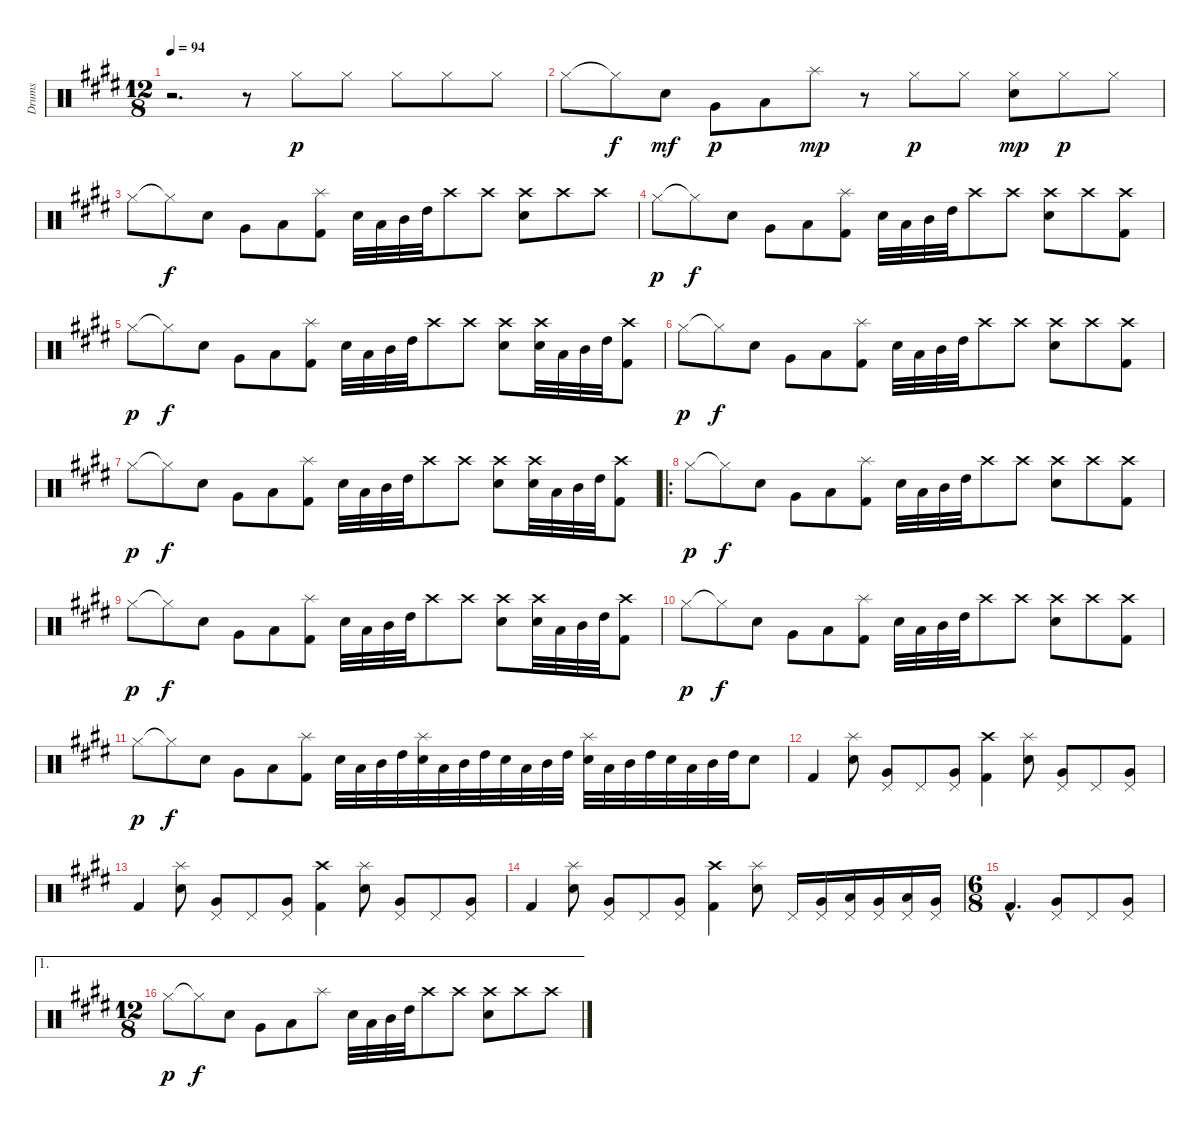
\track ("Drums" "Drums") {instrument percussion}
\staff {score}
\articulation defaults
\ts (12 8)
\tempo 94
\clef neutral
\ks e
r.2{d dy p} r.8 "Hi-Hat (closed)".8 "Hi-Hat (closed)".8 "Hi-Hat (closed)".8 "Hi-Hat (closed)".8 "Hi-Hat (closed)".8 |
"Hi-Hat (closed)".8 "Hi-Hat (closed)"{t}.8{dy f} "Snare (hit) 2".8{dy mf} "Very Low Tom (hit)".8{dy p} "Low Tom (hit)".8 "Splash (hit)".8{dy mp} r.8 "Hi-Hat (closed)".8{dy p} "Hi-Hat (closed)".8 ("Hi-Hat (closed)" "Snare (hit) 2").8{dy mp} "Hi-Hat (closed)".8{dy p} "Hi-Hat (closed)".8 |
"Hi-Hat (closed)".8 "Hi-Hat (closed)"{t}.8{dy f} "Snare (hit) 2".8 "Very Low Tom (hit)".8 "Low Tom (hit)".8 ("Splash (hit)" "Kick (hit) 2").8 "Snare (hit) 2".32 "Low Tom (hit)".32 "Mid Tom (hit)".32 "High Tom (hit)".32 "Crash high (hit)".8 "Crash high (hit)".8 ("Crash high (hit)" "Snare (hit) 2").8 "Crash high (hit)".8 "Crash high (hit)".8 |
"Hi-Hat (closed)".8{dy p} "Hi-Hat (closed)"{t}.8{dy f} "Snare (hit) 2".8 "Very Low Tom (hit)".8 "Low Tom (hit)".8 ("Splash (hit)" "Kick (hit) 2").8 "Snare (hit) 2".32 "Low Tom (hit)".32 "Mid Tom (hit)".32 "High Tom (hit)".32 "Crash high (hit)".8 "Crash high (hit)".8 ("Crash high (hit)" "Snare (hit) 2").8 "Crash high (hit)".8 ("Crash high (hit)" "Kick (hit) 2").8 |
"Hi-Hat (closed)".8{dy p} "Hi-Hat (closed)"{t}.8{dy f} "Snare (hit) 2".8 "Very Low Tom (hit)".8 "Low Tom (hit)".8 ("Splash (hit)" "Kick (hit) 2").8 "Snare (hit) 2".32 "Low Tom (hit)".32 "Mid Tom (hit)".32 "High Tom (hit)".32 "Crash high (hit)".8 "Crash high (hit)".8 ("Crash high (hit)" "Snare (hit) 2").8 ("Crash high (hit)" "Snare (hit) 2").32 "Low Tom (hit)".32 "Mid Tom (hit)".32 "High Tom (hit)".32 ("Crash high (hit)" "Kick (hit) 2").8 |
"Hi-Hat (closed)".8{dy p} "Hi-Hat (closed)"{t}.8{dy f} "Snare (hit) 2".8 "Very Low Tom (hit)".8 "Low Tom (hit)".8 ("Splash (hit)" "Kick (hit) 2").8 "Snare (hit) 2".32 "Low Tom (hit)".32 "Mid Tom (hit)".32 "High Tom (hit)".32 "Crash high (hit)".8 "Crash high (hit)".8 ("Crash high (hit)" "Snare (hit) 2").8 "Crash high (hit)".8 ("Crash high (hit)" "Kick (hit) 2").8 |
"Hi-Hat (closed)".8{dy p} "Hi-Hat (closed)"{t}.8{dy f} "Snare (hit) 2".8 "Very Low Tom (hit)".8 "Low Tom (hit)".8 ("Splash (hit)" "Kick (hit) 2").8 "Snare (hit) 2".32 "Low Tom (hit)".32 "Mid Tom (hit)".32 "High Tom (hit)".32 "Crash high (hit)".8 "Crash high (hit)".8 ("Crash high (hit)" "Snare (hit) 2").8 ("Crash high (hit)" "Snare (hit) 2").32 "Low Tom (hit)".32 "Mid Tom (hit)".32 "High Tom (hit)".32 ("Crash high (hit)" "Kick (hit) 2").8 |
\ro "Hi-Hat (closed)".8{dy p} "Hi-Hat (closed)"{t}.8{dy f} "Snare (hit) 2".8 "Very Low Tom (hit)".8 "Low Tom (hit)".8
("Splash (hit)" "Kick (hit) 2").8 "Snare (hit) 2".32 "Low Tom (hit)".32 "Mid Tom (hit)".32 "High Tom (hit)".32 "Crash high (hit)".8 "Crash high (hit)".8 ("Crash high (hit)" "Snare (hit) 2").8 "Crash high (hit)".8 ("Crash high (hit)" "Kick (hit) 2").8 |
"Hi-Hat (closed)".8{dy p} "Hi-Hat (closed)"{t}.8{dy f} "Snare (hit) 2".8 "Very Low Tom (hit)".8 "Low Tom (hit)".8 ("Splash (hit)" "Kick (hit) 2").8 "Snare (hit) 2".32 "Low Tom (hit)".32 "Mid Tom (hit)".32 "High Tom (hit)".32 "Crash high (hit)".8 "Crash high (hit)".8 ("Crash high (hit)" "Snare (hit) 2").8 ("Crash high (hit)" "Snare (hit) 2").32 "Low Tom (hit)".32 "Mid Tom (hit)".32 "High Tom (hit)".32 ("Crash high (hit)" "Kick (hit) 2").8 |
"Hi-Hat (closed)".8{dy p} "Hi-Hat (closed)"{t}.8{dy f} "Snare (hit) 2".8 "Very Low Tom (hit)".8 "Low Tom (hit)".8 ("Splash (hit)" "Kick (hit) 2").8 "Snare (hit) 2".32 "Low Tom (hit)".32 "Mid Tom (hit)".32 "High Tom (hit)".32 "Crash high (hit)".8 "Crash high (hit)".8 ("Crash high (hit)" "Snare (hit) 2").8 "Crash high (hit)".8 ("Crash high (hit)" "Kick (hit) 2").8 |
"Hi-Hat (closed)".8{dy p} "Hi-Hat (closed)"{t}.8{dy f} "Snare (hit) 2".8 "Very Low Tom (hit)".8 "Low Tom (hit)".8 ("Splash (hit)" "Kick (hit) 2").8 "Snare (hit) 2".32 "Low Tom (hit)".32 "Mid Tom (hit)".32 "High Tom (hit)".32 ("Splash (hit)" "Snare (hit) 2").32 "Low Tom (hit)".32 "Mid Tom (hit)".32 "High Tom (hit)".32 "Snare (hit) 2".32 "Low Tom (hit)".32 "Mid Tom (hit)".32 "High Tom (hit)".32 ("Splash (hit)" "Snare (hit) 2").32 "Low Tom (hit)".32 "Mid Tom (hit)".32 "High Tom (hit)".32 "Snare (hit) 2".32 "Low Tom (hit)".32 "Mid Tom (hit)".32 "High Tom (hit)".32 "Snare (hit) 2".8 |
"Kick (hit) 2".4 ("Splash (hit)" "Snare (hit) 2").8 ("Pedal Hi-Hat (hit)" "Very Low Tom (hit)").8 "Pedal Hi-Hat (hit)".8 ("Pedal Hi-Hat (hit)" "Very Low Tom (hit)").8 ("Crash high (hit)" "Kick (hit) 2").4 ("Splash (hit)" "Snare (hit) 2").8 ("Pedal Hi-Hat (hit)" "Very Low Tom (hit)").8 "Pedal Hi-Hat (hit)".8 ("Pedal Hi-Hat (hit)" "Very Low Tom (hit)").8 |
"Kick (hit) 2".4 ("Splash (hit)" "Snare (hit) 2").8 ("Pedal Hi-Hat (hit)" "Very Low Tom (hit)").8 "Pedal Hi-Hat (hit)".8 ("Pedal Hi-Hat (hit)" "Very Low Tom (hit)").8 ("Crash high (hit)" "Kick (hit) 2").4 ("Splash (hit)" "Snare (hit) 2").8 ("Pedal Hi-Hat (hit)" "Very Low Tom (hit)").8 "Pedal Hi-Hat (hit)".8 ("Pedal Hi-Hat (hit)" "Very Low Tom (hit)").8 |
"Kick (hit) 2".4 ("Splash (hit)" "Snare (hit) 2").8 ("Pedal Hi-Hat (hit)" "Very Low Tom (hit)").8 "Pedal Hi-Hat (hit)".8 ("Pedal Hi-Hat (hit)" "Very Low Tom (hit)").8 ("Crash high (hit)" "Kick (hit) 2").4 ("Splash (hit)" "Snare (hit) 2").8 "Pedal Hi-Hat (hit)".16 ("Pedal Hi-Hat (hit)" "Very Low Tom (hit)").16 ("Pedal Hi-Hat (hit)" "Low Tom (hit)").16 ("Pedal Hi-Hat (hit)" "Very Low Tom (hit)").16 ("Pedal Hi-Hat (hit)" "Low Tom (hit)").16 ("Pedal Hi-Hat (hit)" "Very Low Tom (hit)").16 |
\ts (6 8)
"Kick (hit) 2"{hac}.4{d} ("Pedal Hi-Hat (hit)" "Very Low Tom (hit)").8 "Pedal Hi-Hat (hit)".8 ("Pedal Hi-Hat (hit)" "Very Low Tom (hit)").8 |
\ae 1
\ts (12 8)
"Hi-Hat (closed)".8{dy p} "Hi-Hat (closed)"{t}.8{dy f} "Snare (hit) 2".8 "Very Low Tom (hit)".8 "Low Tom (hit)".8 "Splash (hit)".8 "Snare (hit) 2".32 "Low Tom (hit)".32 "Mid Tom (hit)".32 "High Tom (hit)".32 "Crash high (hit)".8 "Crash high (hit)".8 ("Crash high (hit)" "Snare (hit) 2").8 "Crash high (hit)".8 "Crash high (hit)".8
